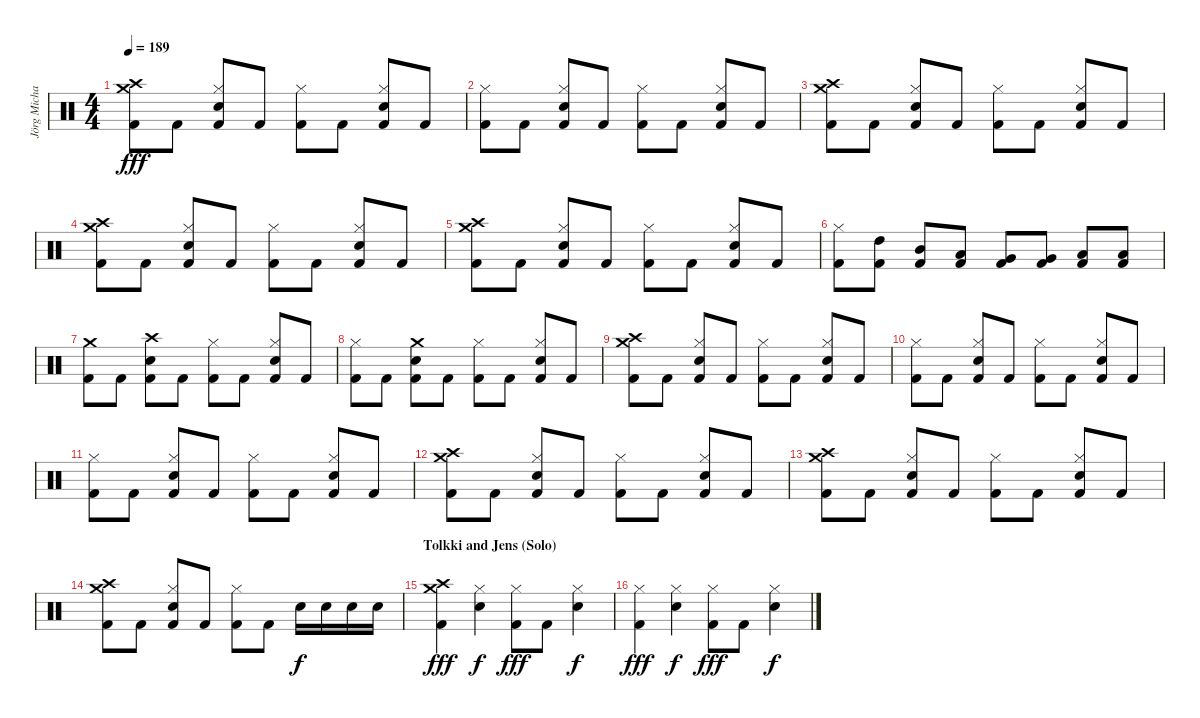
\track ("Jörg Michael" "Jörg Micha") {instrument percussion}
\staff {score}
\articulation defaults
\ts (4 4)
\tempo 189
\clef neutral
\ks c
("Crash high (hit)" "Crash medium (hit)" "Kick (hit) 2").8{dy fff} "Kick (hit) 2".8 ("Hi-Hat (closed)" "Electric Snare (hit)" "Kick (hit) 2").8 "Kick (hit) 2".8 ("Hi-Hat (closed)" "Kick (hit) 2").8 "Kick (hit) 2".8 ("Hi-Hat (closed)" "Electric Snare (hit)" "Kick (hit) 2").8 "Kick (hit) 2".8 |
("Hi-Hat (closed)" "Kick (hit) 2").8 "Kick (hit) 2".8 ("Hi-Hat (closed)" "Electric Snare (hit)" "Kick (hit) 2").8 "Kick (hit) 2".8 ("Hi-Hat (closed)" "Kick (hit) 2").8 "Kick (hit) 2".8 ("Hi-Hat (closed)" "Electric Snare (hit)" "Kick (hit) 2").8 "Kick (hit) 2".8 |
("Crash high (hit)" "Crash medium (hit)" "Kick (hit) 2").8 "Kick (hit) 2".8 ("Hi-Hat (closed)" "Electric Snare (hit)" "Kick (hit) 2").8 "Kick (hit) 2".8 ("Hi-Hat (closed)" "Kick (hit) 2").8 "Kick (hit) 2".8 ("Hi-Hat (closed)" "Electric Snare (hit)" "Kick (hit) 2").8 "Kick (hit) 2".8 |
("Crash high (hit)" "Crash medium (hit)" "Kick (hit) 2").8 "Kick (hit) 2".8 ("Hi-Hat (closed)" "Electric Snare (hit)" "Kick (hit) 2").8 "Kick (hit) 2".8 ("Hi-Hat (closed)" "Kick (hit) 2").8 "Kick (hit) 2".8 ("Hi-Hat (closed)" "Electric Snare (hit)" "Kick (hit) 2").8 "Kick (hit) 2".8 |
("Crash high (hit)" "Crash medium (hit)" "Kick (hit) 2").8 "Kick (hit) 2".8 ("Hi-Hat (closed)" "Electric Snare (hit)" "Kick (hit) 2").8 "Kick (hit) 2".8 ("Hi-Hat (closed)" "Kick (hit) 2").8 "Kick (hit) 2".8 ("Hi-Hat (closed)" "Electric Snare (hit)" "Kick (hit) 2").8 "Kick (hit) 2".8 |
("Hi-Hat (closed)" "Kick (hit) 2").8 ("High Tom (hit)" "Kick (hit) 2").8 ("Mid Tom (hit)" "Kick (hit) 2").8 ("Low Tom (hit)" "Kick (hit) 2").8 ("Very Low Tom (hit)" "Kick (hit) 2").8 ("Very Low Tom (hit)" "Kick (hit) 2").8 ("Low Floor Tom (hit)" "Kick (hit) 2").8 ("Low Floor Tom (hit)" "Kick (hit) 2").8 |
("Crash medium (hit)" "Kick (hit) 2").8 "Kick (hit) 2".8 ("Crash high (hit)" "Electric Snare (hit)" "Kick (hit) 2").8 "Kick (hit) 2".8 ("Hi-Hat (closed)" "Kick (hit) 2").8 "Kick (hit) 2".8 ("Hi-Hat (closed)" "Electric Snare (hit)" "Kick (hit) 2").8 "Kick (hit) 2".8 |
("Hi-Hat (closed)" "Kick (hit) 2").8 "Kick (hit) 2".8 ("Crash medium (hit)" "Electric Snare (hit)" "Kick (hit) 2").8 "Kick (hit) 2".8 ("Hi-Hat (closed)" "Kick (hit) 2").8 "Kick (hit) 2".8 ("Hi-Hat (closed)" "Electric Snare (hit)" "Kick (hit) 2").8 "Kick (hit) 2".8 |
("Crash high (hit)" "Crash medium (hit)" "Kick (hit) 2").8 "Kick (hit) 2".8 ("Hi-Hat (closed)" "Electric Snare (hit)" "Kick (hit) 2").8 "Kick (hit) 2".8 ("Hi-Hat (closed)" "Kick (hit) 2").8 "Kick (hit) 2".8 ("Hi-Hat (closed)" "Electric Snare (hit)" "Kick (hit) 2").8 "Kick (hit) 2".8 |
("Hi-Hat (closed)" "Kick (hit) 2").8 "Kick (hit) 2".8 ("Hi-Hat (closed)" "Electric Snare (hit)" "Kick (hit) 2").8 "Kick (hit) 2".8 ("Hi-Hat (closed)" "Kick (hit) 2").8 "Kick (hit) 2".8 ("Hi-Hat (closed)" "Electric Snare (hit)" "Kick (hit) 2").8 "Kick (hit) 2".8 |
("Hi-Hat (closed)" "Kick (hit) 2").8 "Kick (hit) 2".8 ("Hi-Hat (closed)" "Electric Snare (hit)" "Kick (hit) 2").8 "Kick (hit) 2".8 ("Hi-Hat (closed)" "Kick (hit) 2").8 "Kick (hit) 2".8 ("Hi-Hat (closed)" "Electric Snare (hit)" "Kick (hit) 2").8 "Kick (hit) 2".8 |
("Crash high (hit)" "Crash medium (hit)" "Kick (hit) 2").8 "Kick (hit) 2".8 ("Hi-Hat (closed)" "Electric Snare (hit)" "Kick (hit) 2").8 "Kick (hit) 2".8 ("Hi-Hat (closed)" "Kick (hit) 2").8 "Kick (hit) 2".8 ("Hi-Hat (closed)" "Electric Snare (hit)" "Kick (hit) 2").8 "Kick (hit) 2".8 |
("Crash high (hit)" "Crash medium (hit)" "Kick (hit) 2").8 "Kick (hit) 2".8 ("Hi-Hat (closed)" "Electric Snare (hit)" "Kick (hit) 2").8 "Kick (hit) 2".8 ("Hi-Hat (closed)" "Kick (hit) 2").8 "Kick (hit) 2".8 ("Hi-Hat (closed)" "Electric Snare (hit)" "Kick (hit) 2").8 "Kick (hit) 2".8 |
("Crash high (hit)" "Crash medium (hit)" "Kick (hit) 2").8 "Kick (hit) 2".8 ("Hi-Hat (closed)" "Electric Snare (hit)" "Kick (hit) 2").8 "Kick (hit) 2".8 ("Hi-Hat (closed)" "Kick (hit) 2").8 "Kick (hit) 2".8 "Electric Snare (hit)".16{dy f} "Electric Snare (hit)".16 "Electric Snare (hit)".16 "Electric Snare (hit)".16 |
\section ("" "Tolkki and Jens (Solo)")
("Crash medium (hit)" "Crash high (hit)" "Kick (hit) 2").4{dy fff} ("Hi-Hat (closed)" "Electric Snare (hit)").4{dy f} ("Hi-Hat (closed)" "Kick (hit) 2").8{dy fff} "Kick (hit) 2".8 ("Hi-Hat (closed)" "Electric Snare (hit)").4{dy f} |
("Hi-Hat (closed)" "Kick (hit) 2").4{dy fff} ("Hi-Hat (closed)" "Electric Snare (hit)").4{dy f} ("Hi-Hat (closed)" "Kick (hit) 2").8{dy fff} "Kick (hit) 2".8 ("Hi-Hat (closed)" "Electric Snare (hit)").4{dy f}
